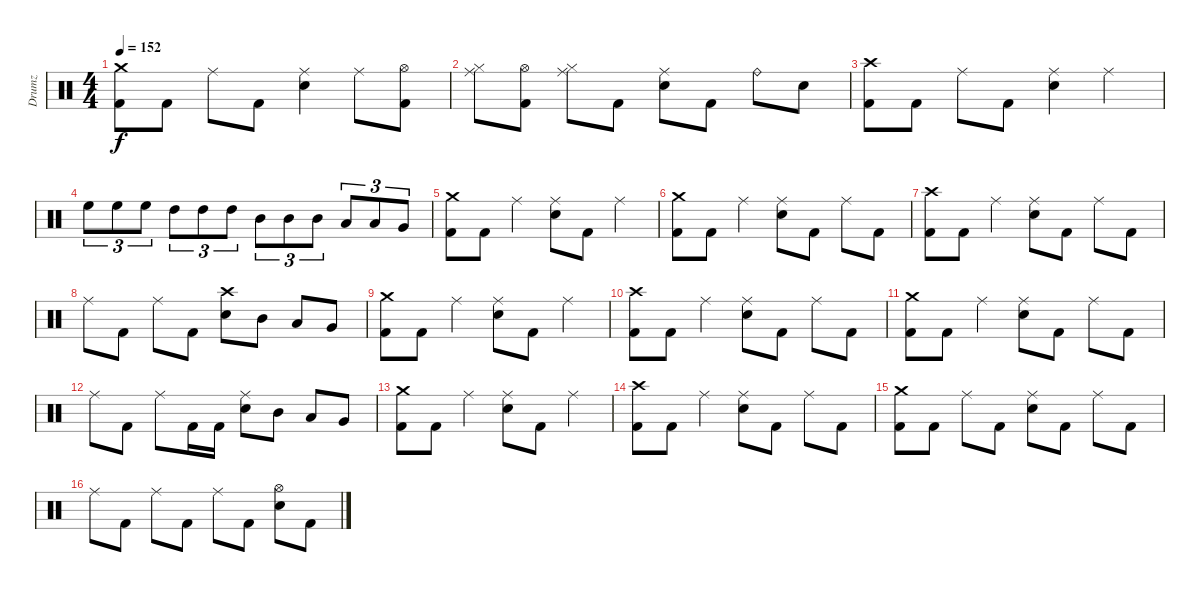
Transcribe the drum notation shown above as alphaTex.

\track ("Drumz" "Drumz") {instrument percussion}
\staff {score}
\articulation defaults
\ts (4 4)
\tempo 152
\clef neutral
\ks c
("Kick (hit) 2" "Crash medium (hit)").8{dy f} "Kick (hit) 2".8 "Ride (middle)".8 "Kick (hit) 2".8 ("Snare (hit) 2" "Ride (middle)").4 "Ride (middle)".8 ("Kick (hit) 2" "Hi-Hat (open)").8 |
("Hi-Hat (closed)" "Ride (middle)").8 ("Kick (hit) 2" "Hi-Hat (open)").8 ("Hi-Hat (closed)" "Ride (middle)").8 "Kick (hit) 2".8 ("Snare (hit) 2" "Ride (middle)").8 "Kick (hit) 2".8 "Ride (bell)".8 "Snare (hit) 2".8 |
("Kick (hit) 2" "Crash high (hit)").8 "Kick (hit) 2".8 "Ride (middle)".8 "Kick (hit) 2".8 ("Snare (hit) 2" "Ride (middle)").4 "Ride (middle)".4 |
"High Floor Tom (hit)".8{tu (3 2)} "High Floor Tom (hit)".8{tu (3 2)} "High Floor Tom (hit)".8{tu (3 2)} "High Tom (hit)".8{tu (3 2)} "High Tom (hit)".8{tu (3 2)} "High Tom (hit)".8{tu (3 2)} "Mid Tom (hit)".8{tu (3 2)} "Mid Tom (hit)".8{tu (3 2)} "Mid Tom (hit)".8{tu (3 2)} "Low Tom (hit)".8{tu (3 2)} "Low Tom (hit)".8{tu (3 2)} "Very Low Tom (hit)".8{tu (3 2)} |
("Kick (hit) 2" "Crash medium (hit)").8 "Kick (hit) 2".8 "Ride (middle)".4 ("Snare (hit) 2" "Ride (middle)").8 "Kick (hit) 2".8 "Ride (middle)".4 |
("Kick (hit) 2" "Crash medium (hit)").8 "Kick (hit) 2".8 "Ride (middle)".4 ("Snare (hit) 2" "Ride (middle)").8 "Kick (hit) 2".8 "Ride (middle)".8 "Kick (hit) 2".8 |
("Kick (hit) 2" "Crash high (hit)").8 "Kick (hit) 2".8 "Ride (middle)".4 ("Snare (hit) 2" "Ride (middle)").8 "Kick (hit) 2".8 "Ride (middle)".8 "Kick (hit) 2".8 |
"Ride (middle)".8 "Kick (hit) 2".8 "Ride (middle)".8 "Kick (hit) 2".8 ("Snare (hit) 2" "Crash high (hit)").8 "Mid Tom (hit)".8 "Low Tom (hit)".8 "Very Low Tom (hit)".8 |
("Kick (hit) 2" "Crash medium (hit)").8 "Kick (hit) 2".8 "Ride (middle)".4 ("Snare (hit) 2" "Ride (middle)").8 "Kick (hit) 2".8 "Ride (middle)".4 |
("Kick (hit) 2" "Crash high (hit)").8 "Kick (hit) 2".8 "Ride (middle)".4 ("Snare (hit) 2" "Ride (middle)").8 "Kick (hit) 2".8 "Ride (middle)".8 "Kick (hit) 2".8 |
("Kick (hit) 2" "Crash medium (hit)").8 "Kick (hit) 2".8 "Ride (middle)".4 ("Snare (hit) 2" "Ride (middle)").8 "Kick (hit) 2".8 "Ride (middle)".8 "Kick (hit) 2".8 |
"Ride (middle)".8 "Kick (hit) 2".8 "Ride (middle)".8 "Kick (hit) 2".16 "Kick (hit) 2".16 ("Snare (hit) 2" "Ride (middle)").8 "Mid Tom (hit)".8 "Low Tom (hit)".8 "Very Low Tom (hit)".8 |
("Kick (hit) 2" "Crash medium (hit)").8 "Kick (hit) 2".8 "Ride (middle)".4 ("Snare (hit) 2" "Ride (middle)").8 "Kick (hit) 2".8 "Ride (middle)".4 |
("Kick (hit) 2" "Crash high (hit)").8 "Kick (hit) 2".8 "Ride (middle)".4 ("Snare (hit) 2" "Ride (middle)").8 "Kick (hit) 2".8 "Ride (middle)".8 "Kick (hit) 2".8 |
("Kick (hit) 2" "Crash medium (hit)").8 "Kick (hit) 2".8 "Ride (middle)".8 "Kick (hit) 2".8 ("Snare (hit) 2" "Ride (middle)").8 "Kick (hit) 2".8 "Ride (middle)".8 "Kick (hit) 2".8 |
"Ride (middle)".8 "Kick (hit) 2".8 "Ride (middle)".8 "Kick (hit) 2".8 "Ride (middle)".8 "Kick (hit) 2".8 ("Snare (hit) 2" "Hi-Hat (open)").8 "Kick (hit) 2".8
